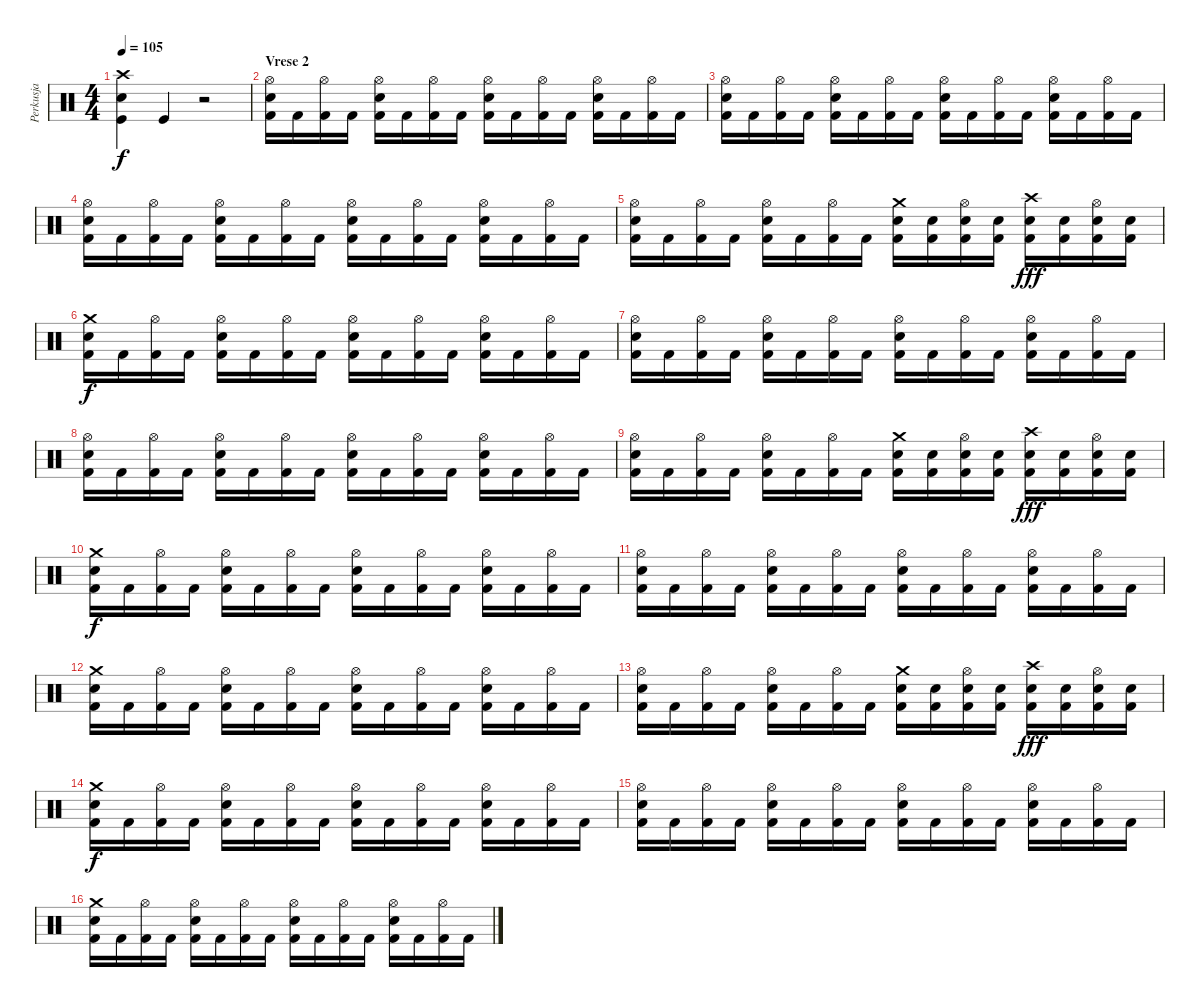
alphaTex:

\track ("Perkusja" "Perkusja") {instrument percussion}
\staff {score}
\articulation defaults
\ts (4 4)
\tempo 105
\clef neutral
\ks c
("Crash high (hit)" "Snare (hit) 2" "Kick (hit)").4{dy f} "Kick (hit)".4 r.2 |
\section ("" "Vrese 2")
("Kick (hit) 2" "Snare (hit) 2" "Hi-Hat (open)").16 "Kick (hit) 2".16 ("Kick (hit) 2" "Hi-Hat (open)").16 "Kick (hit) 2".16 ("Kick (hit) 2" "Snare (hit) 2" "Hi-Hat (open)").16 "Kick (hit) 2".16 ("Kick (hit) 2" "Hi-Hat (open)").16 "Kick (hit) 2".16 ("Kick (hit) 2" "Snare (hit) 2" "Hi-Hat (open)").16 "Kick (hit) 2".16 ("Kick (hit) 2" "Hi-Hat (open)").16 "Kick (hit) 2".16 ("Kick (hit) 2" "Snare (hit) 2" "Hi-Hat (open)").16 "Kick (hit) 2".16 ("Kick (hit) 2" "Hi-Hat (open)").16 "Kick (hit) 2".16 |
("Kick (hit) 2" "Snare (hit) 2" "Hi-Hat (open)").16 "Kick (hit) 2".16 ("Kick (hit) 2" "Hi-Hat (open)").16 "Kick (hit) 2".16 ("Kick (hit) 2" "Snare (hit) 2" "Hi-Hat (open)").16 "Kick (hit) 2".16 ("Kick (hit) 2" "Hi-Hat (open)").16 "Kick (hit) 2".16 ("Kick (hit) 2" "Snare (hit) 2" "Hi-Hat (open)").16 "Kick (hit) 2".16 ("Kick (hit) 2" "Hi-Hat (open)").16 "Kick (hit) 2".16 ("Kick (hit) 2" "Snare (hit) 2" "Hi-Hat (open)").16 "Kick (hit) 2".16 ("Kick (hit) 2" "Hi-Hat (open)").16 "Kick (hit) 2".16 |
("Kick (hit) 2" "Snare (hit) 2" "Hi-Hat (open)").16 "Kick (hit) 2".16 ("Kick (hit) 2" "Hi-Hat (open)").16 "Kick (hit) 2".16 ("Kick (hit) 2" "Snare (hit) 2" "Hi-Hat (open)").16 "Kick (hit) 2".16 ("Kick (hit) 2" "Hi-Hat (open)").16 "Kick (hit) 2".16 ("Kick (hit) 2" "Snare (hit) 2" "Hi-Hat (open)").16 "Kick (hit) 2".16 ("Kick (hit) 2" "Hi-Hat (open)").16 "Kick (hit) 2".16 ("Kick (hit) 2" "Snare (hit) 2" "Hi-Hat (open)").16 "Kick (hit) 2".16 ("Kick (hit) 2" "Hi-Hat (open)").16 "Kick (hit) 2".16 |
("Kick (hit) 2" "Snare (hit) 2" "Hi-Hat (open)").16 "Kick (hit) 2".16 ("Kick (hit) 2" "Hi-Hat (open)").16 "Kick (hit) 2".16 ("Kick (hit) 2" "Snare (hit) 2" "Hi-Hat (open)").16 "Kick (hit) 2".16 ("Kick (hit) 2" "Hi-Hat (open)").16 "Kick (hit) 2".16 ("Kick (hit) 2" "Snare (hit) 2" "Crash medium (hit)").16 ("Kick (hit) 2" "Snare (hit) 2").16 ("Kick (hit) 2" "Snare (hit) 2" "Hi-Hat (open)").16 ("Kick (hit) 2" "Snare (hit) 2").16 ("Kick (hit) 2" "Electric Snare (hit)" "Crash high (hit)").16{dy fff} ("Kick (hit) 2" "Electric Snare (hit)").16 ("Kick (hit) 2" "Electric Snare (hit)" "Hi-Hat (open)").16 ("Kick (hit) 2" "Electric Snare (hit)").16 |
("Kick (hit) 2" "Snare (hit) 2" "Crash medium (hit)").16{dy f} "Kick (hit) 2".16 ("Kick (hit) 2" "Hi-Hat (open)").16 "Kick (hit) 2".16 ("Kick (hit) 2" "Snare (hit) 2" "Hi-Hat (open)").16 "Kick (hit) 2".16 ("Kick (hit) 2" "Hi-Hat (open)").16 "Kick (hit) 2".16 ("Kick (hit) 2" "Snare (hit) 2" "Hi-Hat (open)").16 "Kick (hit) 2".16 ("Kick (hit) 2" "Hi-Hat (open)").16 "Kick (hit) 2".16 ("Kick (hit) 2" "Snare (hit) 2" "Hi-Hat (open)").16 "Kick (hit) 2".16 ("Kick (hit) 2" "Hi-Hat (open)").16 "Kick (hit) 2".16 |
("Kick (hit) 2" "Snare (hit) 2" "Hi-Hat (open)").16 "Kick (hit) 2".16 ("Kick (hit) 2" "Hi-Hat (open)").16 "Kick (hit) 2".16 ("Kick (hit) 2" "Snare (hit) 2" "Hi-Hat (open)").16 "Kick (hit) 2".16 ("Kick (hit) 2" "Hi-Hat (open)").16 "Kick (hit) 2".16 ("Kick (hit) 2" "Snare (hit) 2" "Hi-Hat (open)").16 "Kick (hit) 2".16 ("Kick (hit) 2" "Hi-Hat (open)").16 "Kick (hit) 2".16 ("Kick (hit) 2" "Snare (hit) 2" "Hi-Hat (open)").16 "Kick (hit) 2".16 ("Kick (hit) 2" "Hi-Hat (open)").16 "Kick (hit) 2".16 |
("Kick (hit) 2" "Snare (hit) 2" "Hi-Hat (open)").16 "Kick (hit) 2".16 ("Kick (hit) 2" "Hi-Hat (open)").16 "Kick (hit) 2".16 ("Kick (hit) 2" "Snare (hit) 2" "Hi-Hat (open)").16 "Kick (hit) 2".16 ("Kick (hit) 2" "Hi-Hat (open)").16 "Kick (hit) 2".16 ("Kick (hit) 2" "Snare (hit) 2" "Hi-Hat (open)").16 "Kick (hit) 2".16 ("Kick (hit) 2" "Hi-Hat (open)").16 "Kick (hit) 2".16 ("Kick (hit) 2" "Snare (hit) 2" "Hi-Hat (open)").16 "Kick (hit) 2".16 ("Kick (hit) 2" "Hi-Hat (open)").16 "Kick (hit) 2".16 |
("Kick (hit) 2" "Snare (hit) 2" "Hi-Hat (open)").16 "Kick (hit) 2".16 ("Kick (hit) 2" "Hi-Hat (open)").16 "Kick (hit) 2".16 ("Kick (hit) 2" "Snare (hit) 2" "Hi-Hat (open)").16 "Kick (hit) 2".16 ("Kick (hit) 2" "Hi-Hat (open)").16 "Kick (hit) 2".16 ("Kick (hit) 2" "Snare (hit) 2" "Crash medium (hit)").16 ("Kick (hit) 2" "Snare (hit) 2").16 ("Kick (hit) 2" "Snare (hit) 2" "Hi-Hat (open)").16 ("Kick (hit) 2" "Snare (hit) 2").16 ("Kick (hit) 2" "Electric Snare (hit)" "Crash high (hit)").16{dy fff} ("Kick (hit) 2" "Electric Snare (hit)").16 ("Kick (hit) 2" "Electric Snare (hit)" "Hi-Hat (open)").16 ("Kick (hit) 2" "Electric Snare (hit)").16 |
("Kick (hit) 2" "Snare (hit) 2" "Crash medium (hit)").16{dy f} "Kick (hit) 2".16 ("Kick (hit) 2" "Hi-Hat (open)").16 "Kick (hit) 2".16 ("Kick (hit) 2" "Snare (hit) 2" "Hi-Hat (open)").16 "Kick (hit) 2".16 ("Kick (hit) 2" "Hi-Hat (open)").16 "Kick (hit) 2".16 ("Kick (hit) 2" "Snare (hit) 2" "Hi-Hat (open)").16 "Kick (hit) 2".16 ("Kick (hit) 2" "Hi-Hat (open)").16 "Kick (hit) 2".16 ("Kick (hit) 2" "Snare (hit) 2" "Hi-Hat (open)").16 "Kick (hit) 2".16 ("Kick (hit) 2" "Hi-Hat (open)").16 "Kick (hit) 2".16 |
("Kick (hit) 2" "Snare (hit) 2" "Hi-Hat (open)").16 "Kick (hit) 2".16 ("Kick (hit) 2" "Hi-Hat (open)").16 "Kick (hit) 2".16 ("Kick (hit) 2" "Snare (hit) 2" "Hi-Hat (open)").16 "Kick (hit) 2".16 ("Kick (hit) 2" "Hi-Hat (open)").16 "Kick (hit) 2".16 ("Kick (hit) 2" "Snare (hit) 2" "Hi-Hat (open)").16 "Kick (hit) 2".16 ("Kick (hit) 2" "Hi-Hat (open)").16 "Kick (hit) 2".16 ("Kick (hit) 2" "Snare (hit) 2" "Hi-Hat (open)").16 "Kick (hit) 2".16 ("Kick (hit) 2" "Hi-Hat (open)").16 "Kick (hit) 2".16 |
("Kick (hit) 2" "Snare (hit) 2" "Crash medium (hit)").16 "Kick (hit) 2".16 ("Kick (hit) 2" "Hi-Hat (open)").16 "Kick (hit) 2".16 ("Kick (hit) 2" "Snare (hit) 2" "Hi-Hat (open)").16 "Kick (hit) 2".16 ("Kick (hit) 2" "Hi-Hat (open)").16 "Kick (hit) 2".16 ("Kick (hit) 2" "Snare (hit) 2" "Hi-Hat (open)").16 "Kick (hit) 2".16 ("Kick (hit) 2" "Hi-Hat (open)").16 "Kick (hit) 2".16 ("Kick (hit) 2" "Snare (hit) 2" "Hi-Hat (open)").16 "Kick (hit) 2".16 ("Kick (hit) 2" "Hi-Hat (open)").16 "Kick (hit) 2".16 |
("Kick (hit) 2" "Snare (hit) 2" "Hi-Hat (open)").16 "Kick (hit) 2".16 ("Kick (hit) 2" "Hi-Hat (open)").16 "Kick (hit) 2".16 ("Kick (hit) 2" "Snare (hit) 2" "Hi-Hat (open)").16 "Kick (hit) 2".16 ("Kick (hit) 2" "Hi-Hat (open)").16 "Kick (hit) 2".16 ("Kick (hit) 2" "Snare (hit) 2" "Crash medium (hit)").16 ("Kick (hit) 2" "Snare (hit) 2").16 ("Kick (hit) 2" "Snare (hit) 2" "Hi-Hat (open)").16 ("Kick (hit) 2" "Snare (hit) 2").16 ("Kick (hit) 2" "Electric Snare (hit)" "Crash high (hit)").16{dy fff} ("Kick (hit) 2" "Electric Snare (hit)").16 ("Kick (hit) 2" "Electric Snare (hit)" "Hi-Hat (open)").16 ("Kick (hit) 2" "Electric Snare (hit)").16 |
("Kick (hit) 2" "Snare (hit) 2" "Crash medium (hit)").16{dy f} "Kick (hit) 2".16 ("Kick (hit) 2" "Hi-Hat (open)").16 "Kick (hit) 2".16 ("Kick (hit) 2" "Snare (hit) 2" "Hi-Hat (open)").16 "Kick (hit) 2".16 ("Kick (hit) 2" "Hi-Hat (open)").16 "Kick (hit) 2".16 ("Kick (hit) 2" "Snare (hit) 2" "Hi-Hat (open)").16 "Kick (hit) 2".16 ("Kick (hit) 2" "Hi-Hat (open)").16 "Kick (hit) 2".16 ("Kick (hit) 2" "Snare (hit) 2" "Hi-Hat (open)").16 "Kick (hit) 2".16 ("Kick (hit) 2" "Hi-Hat (open)").16 "Kick (hit) 2".16 |
("Kick (hit) 2" "Snare (hit) 2" "Hi-Hat (open)").16 "Kick (hit) 2".16 ("Kick (hit) 2" "Hi-Hat (open)").16 "Kick (hit) 2".16 ("Kick (hit) 2" "Snare (hit) 2" "Hi-Hat (open)").16 "Kick (hit) 2".16 ("Kick (hit) 2" "Hi-Hat (open)").16 "Kick (hit) 2".16 ("Kick (hit) 2" "Snare (hit) 2" "Hi-Hat (open)").16 "Kick (hit) 2".16 ("Kick (hit) 2" "Hi-Hat (open)").16 "Kick (hit) 2".16 ("Kick (hit) 2" "Snare (hit) 2" "Hi-Hat (open)").16 "Kick (hit) 2".16 ("Kick (hit) 2" "Hi-Hat (open)").16 "Kick (hit) 2".16 |
("Kick (hit) 2" "Snare (hit) 2" "Crash medium (hit)").16 "Kick (hit) 2".16 ("Kick (hit) 2" "Hi-Hat (open)").16 "Kick (hit) 2".16 ("Kick (hit) 2" "Snare (hit) 2" "Hi-Hat (open)").16 "Kick (hit) 2".16 ("Kick (hit) 2" "Hi-Hat (open)").16 "Kick (hit) 2".16 ("Kick (hit) 2" "Snare (hit) 2" "Hi-Hat (open)").16 "Kick (hit) 2".16 ("Kick (hit) 2" "Hi-Hat (open)").16 "Kick (hit) 2".16 ("Kick (hit) 2" "Snare (hit) 2" "Hi-Hat (open)").16 "Kick (hit) 2".16 ("Kick (hit) 2" "Hi-Hat (open)").16 "Kick (hit) 2".16
